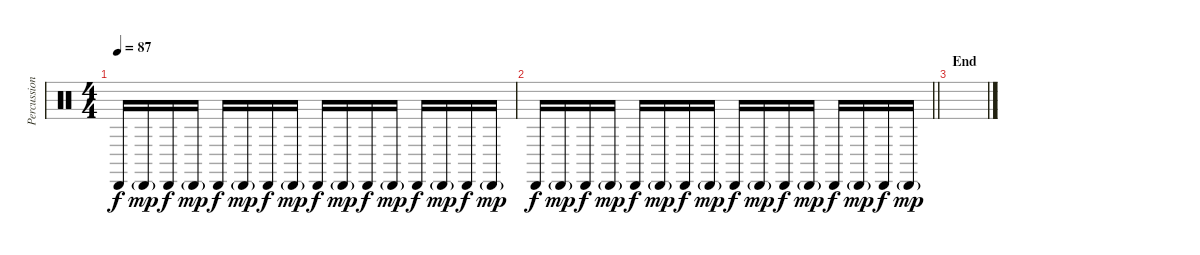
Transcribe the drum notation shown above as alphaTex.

\track ("Percussion" "Percussion") {instrument percussion}
\staff {score}
\articulation defaults
\ts (4 4)
\tempo 87
\clef neutral
\ks c "Cabasa (hit)".16{dy f} "Cabasa (hit)"{g}.16{dy mp} "Cabasa (hit)".16{dy f} "Cabasa (hit)"{g}.16{dy mp} "Cabasa (hit)".16{dy f} "Cabasa (hit)"{g}.16{dy mp} "Cabasa (hit)".16{dy f} "Cabasa (hit)"{g}.16{dy mp} "Cabasa (hit)".16{dy f} "Cabasa (hit)"{g}.16{dy mp} "Cabasa (hit)".16{dy f} "Cabasa (hit)"{g}.16{dy mp} "Cabasa (hit)".16{dy f} "Cabasa (hit)"{g}.16{dy mp} "Cabasa (hit)".16{dy f} "Cabasa (hit)"{g}.16{dy mp}
|
\barLineRight lightlight "Cabasa (hit)".16{dy f} "Cabasa (hit)"{g}.16{dy mp} "Cabasa (hit)".16{dy f} "Cabasa (hit)"{g}.16{dy mp} "Cabasa (hit)".16{dy f} "Cabasa (hit)"{g}.16{dy mp} "Cabasa (hit)".16{dy f} "Cabasa (hit)"{g}.16{dy mp} "Cabasa (hit)".16{dy f} "Cabasa (hit)"{g}.16{dy mp} "Cabasa (hit)".16{dy f} "Cabasa (hit)"{g}.16{dy mp} "Cabasa (hit)".16{dy f} "Cabasa (hit)"{g}.16{dy mp} "Cabasa (hit)".16{dy f} "Cabasa (hit)"{g}.16{dy mp}
|
\section ("" "End")
